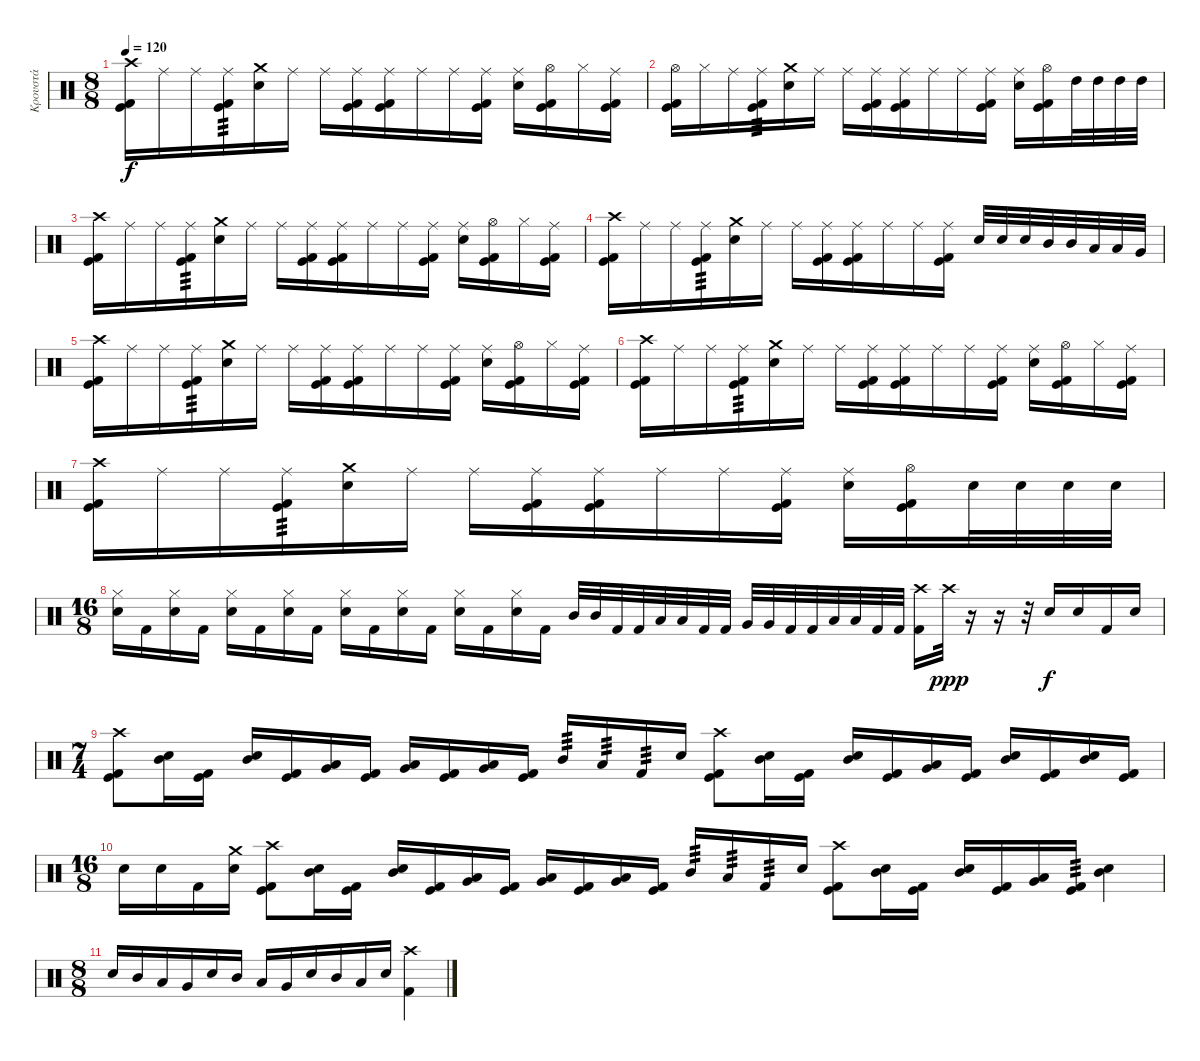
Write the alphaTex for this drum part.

\track ("Κρουστά" "Κρουστά") {instrument percussion}
\staff {score}
\articulation defaults
\ts (8 8)
\tempo 120
\clef neutral
\ks c
("Crash high (hit)" "Kick (hit)" "Kick (hit) 2").16{dy f} "Ride (middle)".16 "Ride (middle)".16 ("Ride (middle)" "Kick (hit)" "Kick (hit) 2").16{tp 3} ("Crash medium (hit)" "Snare (hit) 2").16 "Ride (middle)".16 "Ride (middle)".16 ("Ride (middle)" "Kick (hit)" "Kick (hit) 2").16 ("Ride (middle)" "Kick (hit)" "Kick (hit) 2").16 "Ride (middle)".16 "Ride (middle)".16 ("Ride (middle)" "Kick (hit)" "Kick (hit) 2").16 ("Ride (middle)" "Snare (hit) 2").16 ("Hi-Hat (open)" "Kick (hit)" "Kick (hit) 2").16 "Hi-Hat (closed)".16 ("Ride (middle)" "Kick (hit)" "Kick (hit) 2").16 |
("Hi-Hat (open)" "Kick (hit)" "Kick (hit) 2").16 "Hi-Hat (closed)".16 "Ride (middle)".16 ("Ride (middle)" "Kick (hit)" "Kick (hit) 2").16{tp 3} ("Crash medium (hit)" "Snare (hit) 2").16 "Ride (middle)".16 "Ride (middle)".16 ("Ride (middle)" "Kick (hit)" "Kick (hit) 2").16 ("Ride (middle)" "Kick (hit)" "Kick (hit) 2").16 "Ride (middle)".16 "Ride (middle)".16 ("Ride (middle)" "Kick (hit)" "Kick (hit) 2").16 ("Ride (middle)" "Snare (hit) 2").16 ("Hi-Hat (open)" "Kick (hit)" "Kick (hit) 2").16 "High Tom (hit)".32 "High Tom (hit)".32 "High Tom (hit)".32 "High Tom (hit)".32 |
("Crash high (hit)" "Kick (hit)" "Kick (hit) 2").16 "Ride (middle)".16 "Ride (middle)".16 ("Ride (middle)" "Kick (hit)" "Kick (hit) 2").16{tp 3} ("Crash medium (hit)" "Snare (hit) 2").16 "Ride (middle)".16 "Ride (middle)".16 ("Ride (middle)" "Kick (hit)" "Kick (hit) 2").16 ("Ride (middle)" "Kick (hit)" "Kick (hit) 2").16 "Ride (middle)".16 "Ride (middle)".16 ("Ride (middle)" "Kick (hit)" "Kick (hit) 2").16 ("Ride (middle)" "Snare (hit) 2").16 ("Hi-Hat (open)" "Kick (hit)" "Kick (hit) 2").16 "Hi-Hat (closed)".16 ("Ride (middle)" "Kick (hit)" "Kick (hit) 2").16 |
("Crash high (hit)" "Kick (hit)" "Kick (hit) 2").16 "Ride (middle)".16 "Ride (middle)".16 ("Ride (middle)" "Kick (hit)" "Kick (hit) 2").16{tp 3} ("Crash medium (hit)" "Snare (hit) 2").16 "Ride (middle)".16 "Ride (middle)".16 ("Ride (middle)" "Kick (hit)" "Kick (hit) 2").16 ("Ride (middle)" "Kick (hit)" "Kick (hit) 2").16 "Ride (middle)".16 "Ride (middle)".16 ("Ride (middle)" "Kick (hit)" "Kick (hit) 2").16 "Snare (hit) 2".32 "Snare (hit) 2".32 "Snare (hit) 2".32 "Mid Tom (hit)".32 "Mid Tom (hit)".32 "Low Tom (hit)".32 "Low Tom (hit)".32 "Very Low Tom (hit)".32 |
("Crash high (hit)" "Kick (hit)" "Kick (hit) 2").16 "Ride (middle)".16 "Ride (middle)".16 ("Ride (middle)" "Kick (hit)" "Kick (hit) 2").16{tp 3} ("Crash medium (hit)" "Snare (hit) 2").16 "Ride (middle)".16 "Ride (middle)".16 ("Ride (middle)" "Kick (hit)" "Kick (hit) 2").16 ("Ride (middle)" "Kick (hit)" "Kick (hit) 2").16 "Ride (middle)".16 "Ride (middle)".16 ("Ride (middle)" "Kick (hit)" "Kick (hit) 2").16 ("Ride (middle)" "Snare (hit) 2").16 ("Hi-Hat (open)" "Kick (hit)" "Kick (hit) 2").16 "Hi-Hat (closed)".16 ("Ride (middle)" "Kick (hit)" "Kick (hit) 2").16 |
("Crash high (hit)" "Kick (hit)" "Kick (hit) 2").16 "Ride (middle)".16 "Ride (middle)".16 ("Ride (middle)" "Kick (hit)" "Kick (hit) 2").16{tp 3} ("Crash medium (hit)" "Snare (hit) 2").16 "Ride (middle)".16 "Ride (middle)".16 ("Ride (middle)" "Kick (hit)" "Kick (hit) 2").16 ("Ride (middle)" "Kick (hit)" "Kick (hit) 2").16 "Ride (middle)".16 "Ride (middle)".16 ("Ride (middle)" "Kick (hit)" "Kick (hit) 2").16 ("Ride (middle)" "Snare (hit) 2").16 ("Hi-Hat (open)" "Kick (hit)" "Kick (hit) 2").16 "Hi-Hat (closed)".16 ("Ride (middle)" "Kick (hit)" "Kick (hit) 2").16 |
("Crash high (hit)" "Kick (hit)" "Kick (hit) 2").16 "Ride (middle)".16 "Ride (middle)".16 ("Ride (middle)" "Kick (hit)" "Kick (hit) 2").16{tp 3} ("Crash medium (hit)" "Snare (hit) 2").16 "Ride (middle)".16 "Ride (middle)".16 ("Ride (middle)" "Kick (hit)" "Kick (hit) 2").16 ("Ride (middle)" "Kick (hit)" "Kick (hit) 2").16 "Ride (middle)".16 "Ride (middle)".16 ("Ride (middle)" "Kick (hit)" "Kick (hit) 2").16 ("Ride (middle)" "Snare (hit) 2").16 ("Hi-Hat (open)" "Kick (hit)" "Kick (hit) 2").16 "Snare (hit) 2".32 "Snare (hit) 2".32 "Snare (hit) 2".32 "Snare (hit) 2".32 |
\ts (16 8)
("Hi-Hat (closed)" "Snare (hit) 2").16 "Kick (hit) 2".16 ("Hi-Hat (closed)" "Snare (hit) 2").16 "Kick (hit) 2".16 ("Hi-Hat (closed)" "Snare (hit) 2").16 "Kick (hit) 2".16 ("Hi-Hat (closed)" "Snare (hit) 2").16 "Kick (hit) 2".16 ("Hi-Hat (closed)" "Snare (hit) 2").16 "Kick (hit) 2".16 ("Hi-Hat (closed)" "Snare (hit) 2").16 "Kick (hit) 2".16 ("Hi-Hat (closed)" "Snare (hit) 2").16 "Kick (hit) 2".16 ("Hi-Hat (closed)" "Snare (hit) 2").16 "Kick (hit) 2".16 "Mid Tom (hit)".32 "Mid Tom (hit)".32 "Kick (hit) 2".32 "Kick (hit) 2".32 "Low Tom (hit)".32 "Low Tom (hit)".32 "Kick (hit) 2".32 "Kick (hit) 2".32 "Very Low Tom (hit)".32 "Very Low Tom (hit)".32 "Kick (hit) 2".32 "Kick (hit) 2".32 "Low Floor Tom (hit)".32 "Low Floor Tom (hit)".32 "Kick (hit) 2".32 "Kick (hit) 2".32 ("Crash high (hit)" "Kick (hit) 2").16 "Crash high (hit)".32{dy ppp} r.16 r.16 r.32 "Snare (hit) 2".16{dy f} "Snare (hit) 2".16 "Kick (hit) 2".16 "Snare (hit) 2".16 |
\ts (7 4)
("Crash high (hit)" "Kick (hit)" "Kick (hit) 2").8 ("Mid Tom (hit)" "Snare (hit) 2").16 ("Kick (hit)" "Kick (hit) 2").16 ("Mid Tom (hit)" "Snare (hit) 2").16 ("Kick (hit)" "Kick (hit) 2").16 ("Very Low Tom (hit)" "Low Tom (hit)").16 ("Kick (hit)" "Kick (hit) 2").16 ("Very Low Tom (hit)" "Low Tom (hit)").16 ("Kick (hit)" "Kick (hit) 2").16 ("Very Low Tom (hit)" "Low Tom (hit)").16 ("Kick (hit)" "Kick (hit) 2").16 "Mid Tom (hit)".16{tp 3} "Low Tom (hit)".16{tp 3} "Kick (hit) 2".16{tp 3} "Snare (hit) 2".16 ("Crash high (hit)" "Kick (hit)" "Kick (hit) 2").8 ("Mid Tom (hit)" "Snare (hit) 2").16 ("Kick (hit)" "Kick (hit) 2").16 ("Mid Tom (hit)" "Snare (hit) 2").16 ("Kick (hit)" "Kick (hit) 2").16 ("Very Low Tom (hit)" "Low Tom (hit)").16 ("Kick (hit)" "Kick (hit) 2").16 ("Mid Tom (hit)" "Snare (hit) 2").16 ("Kick (hit)" "Kick (hit) 2").16 ("Mid Tom (hit)" "Snare (hit) 2").16 ("Kick (hit)" "Kick (hit) 2").16 |
\ts (16 8)
"Snare (hit) 2".16 "Snare (hit) 2".16 "Kick (hit) 2".16 ("Crash medium (hit)" "Snare (hit) 2").16 ("Crash high (hit)" "Kick (hit)" "Kick (hit) 2").8 ("Mid Tom (hit)" "Snare (hit) 2").16 ("Kick (hit)" "Kick (hit) 2").16 ("Mid Tom (hit)" "Snare (hit) 2").16 ("Kick (hit)" "Kick (hit) 2").16 ("Very Low Tom (hit)" "Low Tom (hit)").16 ("Kick (hit)" "Kick (hit) 2").16 ("Very Low Tom (hit)" "Low Tom (hit)").16 ("Kick (hit)" "Kick (hit) 2").16 ("Very Low Tom (hit)" "Low Tom (hit)").16 ("Kick (hit)" "Kick (hit) 2").16 "Mid Tom (hit)".16{tp 3} "Low Tom (hit)".16{tp 3} "Kick (hit) 2".16{tp 3} "Snare (hit) 2".16 ("Crash high (hit)" "Kick (hit)" "Kick (hit) 2").8 ("Mid Tom (hit)" "Snare (hit) 2").16 ("Kick (hit)" "Kick (hit) 2").16 ("Mid Tom (hit)" "Snare (hit) 2").16 ("Kick (hit)" "Kick (hit) 2").16 ("Very Low Tom (hit)" "Low Tom (hit)").16 ("Kick (hit)" "Kick (hit) 2").16{tp 3} ("Mid Tom (hit)" "Snare (hit) 2").4 |
\ts (8 8)
"Snare (hit) 2".16 "Mid Tom (hit)".16 "Low Tom (hit)".16 "Very Low Tom (hit)".16 "Snare (hit) 2".16 "Mid Tom (hit)".16 "Low Tom (hit)".16 "Very Low Tom (hit)".16 "Snare (hit) 2".16 "Mid Tom (hit)".16 "Low Tom (hit)".16 "Snare (hit) 2".16 ("Crash high (hit)" "Kick (hit) 2").4
